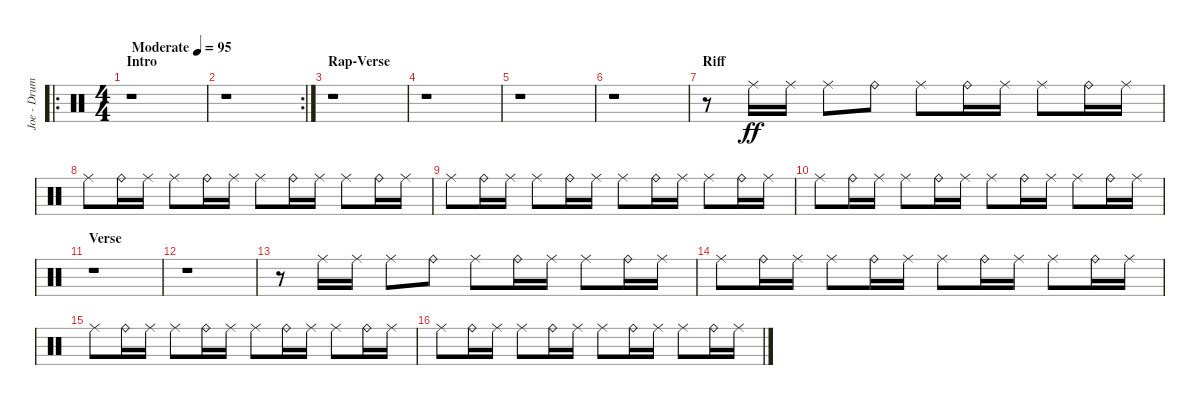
\track ("Joe - Drums samples" "Joe - Drum") {instrument percussion}
\staff {score}
\articulation defaults
\ro
\ts (4 4)
\section ("" "Intro")
\tempo (95 "Moderate")
\clef neutral
\ks c
r.1{dy ff} |
\rc 2
r.1 |
\section ("" "Rap-Verse")
r.1 |
r.1 |
r.1 |
r.1 |
\section ("" "Riff")
r.8 "Ride (middle)".16 "Ride (middle)".16 "Ride (middle)".8 "Ride (bell)".8 "Ride (middle)".8 "Ride (bell)".16 "Ride (middle)".16 "Ride (middle)".8 "Ride (bell)".16 "Ride (middle)".16 |
"Ride (middle)".8 "Ride (bell)".16 "Ride (middle)".16 "Ride (middle)".8 "Ride (bell)".16 "Ride (middle)".16 "Ride (middle)".8 "Ride (bell)".16 "Ride (middle)".16 "Ride (middle)".8 "Ride (bell)".16 "Ride (middle)".16 |
"Ride (middle)".8 "Ride (bell)".16 "Ride (middle)".16 "Ride (middle)".8 "Ride (bell)".16 "Ride (middle)".16 "Ride (middle)".8 "Ride (bell)".16 "Ride (middle)".16 "Ride (middle)".8 "Ride (bell)".16 "Ride (middle)".16 |
"Ride (middle)".8 "Ride (bell)".16 "Ride (middle)".16 "Ride (middle)".8 "Ride (bell)".16 "Ride (middle)".16 "Ride (middle)".8 "Ride (bell)".16 "Ride (middle)".16 "Ride (middle)".8 "Ride (bell)".16 "Ride (middle)".16 |
\section ("" "Verse")
r.1 |
r.1 |
r.8 "Ride (middle)".16 "Ride (middle)".16 "Ride (middle)".8 "Ride (bell)".8 "Ride (middle)".8 "Ride (bell)".16 "Ride (middle)".16 "Ride (middle)".8 "Ride (bell)".16 "Ride (middle)".16 |
"Ride (middle)".8 "Ride (bell)".16 "Ride (middle)".16 "Ride (middle)".8 "Ride (bell)".16 "Ride (middle)".16 "Ride (middle)".8 "Ride (bell)".16 "Ride (middle)".16 "Ride (middle)".8 "Ride (bell)".16 "Ride (middle)".16 |
"Ride (middle)".8 "Ride (bell)".16 "Ride (middle)".16 "Ride (middle)".8 "Ride (bell)".16 "Ride (middle)".16 "Ride (middle)".8 "Ride (bell)".16 "Ride (middle)".16 "Ride (middle)".8 "Ride (bell)".16 "Ride (middle)".16 |
"Ride (middle)".8 "Ride (bell)".16 "Ride (middle)".16 "Ride (middle)".8 "Ride (bell)".16 "Ride (middle)".16 "Ride (middle)".8 "Ride (bell)".16 "Ride (middle)".16 "Ride (middle)".8 "Ride (bell)".16 "Ride (middle)".16
